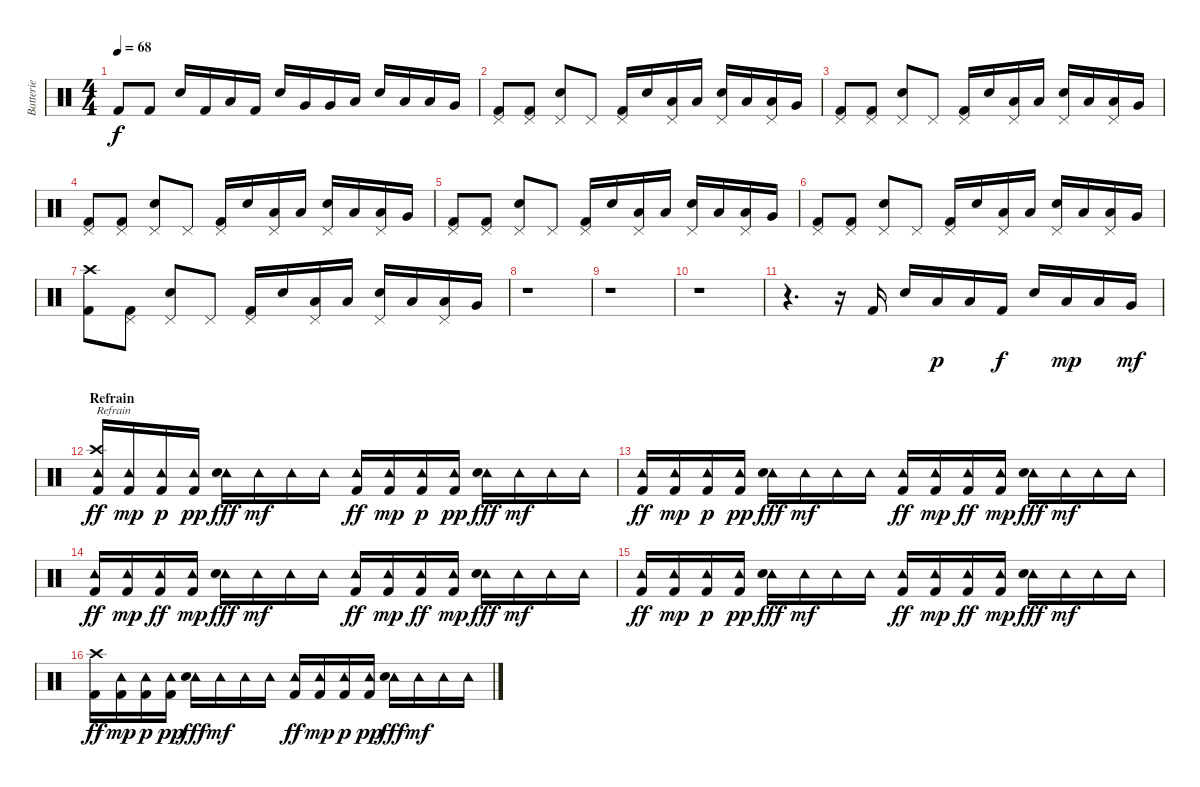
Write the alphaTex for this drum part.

\track ("Batterie" "Batterie") {instrument percussion}
\staff {score}
\articulation defaults
\ts (4 4)
\tempo 68
\clef neutral
\ks c "Kick (hit) 2".8{dy f} "Kick (hit) 2".8 "Electric Snare (hit)".16 "Kick (hit) 2".16 "Low Floor Tom (hit)".16 "Kick (hit) 2".16 "Electric Snare (hit)".16 "Very Low Tom (hit)".16 "Very Low Tom (hit)".16 "Low Floor Tom (hit)".16 "Electric Snare (hit)".16 "Low Floor Tom (hit)".16 "Low Floor Tom (hit)".16 "Very Low Tom (hit)".16
|
("Pedal Hi-Hat (hit)" "Kick (hit) 2").8 ("Pedal Hi-Hat (hit)" "Kick (hit) 2").8 ("Pedal Hi-Hat (hit)" "Electric Snare (hit)").8 "Pedal Hi-Hat (hit)".8 ("Pedal Hi-Hat (hit)" "Kick (hit) 2").16 "Electric Snare (hit)".16 ("Pedal Hi-Hat (hit)" "Low Tom (hit)").16 "Low Tom (hit)".16 ("Pedal Hi-Hat (hit)" "Electric Snare (hit)").16 "Low Tom (hit)".16 ("Pedal Hi-Hat (hit)" "Low Tom (hit)").16 "Very Low Tom (hit)".16 |
("Pedal Hi-Hat (hit)" "Kick (hit) 2").8 ("Pedal Hi-Hat (hit)" "Kick (hit) 2").8 ("Pedal Hi-Hat (hit)" "Electric Snare (hit)").8 "Pedal Hi-Hat (hit)".8 ("Pedal Hi-Hat (hit)" "Kick (hit) 2").16 "Electric Snare (hit)".16 ("Pedal Hi-Hat (hit)" "Low Tom (hit)").16 "Low Tom (hit)".16 ("Pedal Hi-Hat (hit)" "Electric Snare (hit)").16 "Low Tom (hit)".16 ("Pedal Hi-Hat (hit)" "Low Tom (hit)").16 "Very Low Tom (hit)".16 |
("Pedal Hi-Hat (hit)" "Kick (hit) 2").8 ("Pedal Hi-Hat (hit)" "Kick (hit) 2").8 ("Pedal Hi-Hat (hit)" "Electric Snare (hit)").8 "Pedal Hi-Hat (hit)".8 ("Pedal Hi-Hat (hit)" "Kick (hit) 2").16 "Electric Snare (hit)".16 ("Pedal Hi-Hat (hit)" "Low Tom (hit)").16 "Low Tom (hit)".16 ("Pedal Hi-Hat (hit)" "Electric Snare (hit)").16 "Low Tom (hit)".16 ("Pedal Hi-Hat (hit)" "Low Tom (hit)").16 "Very Low Tom (hit)".16 |
("Pedal Hi-Hat (hit)" "Kick (hit) 2").8 ("Pedal Hi-Hat (hit)" "Kick (hit) 2").8 ("Pedal Hi-Hat (hit)" "Electric Snare (hit)").8 "Pedal Hi-Hat (hit)".8 ("Pedal Hi-Hat (hit)" "Kick (hit) 2").16 "Electric Snare (hit)".16 ("Pedal Hi-Hat (hit)" "Low Tom (hit)").16 "Low Tom (hit)".16 ("Pedal Hi-Hat (hit)" "Electric Snare (hit)").16 "Low Tom (hit)".16 ("Pedal Hi-Hat (hit)" "Low Tom (hit)").16 "Very Low Tom (hit)".16 |
("Pedal Hi-Hat (hit)" "Kick (hit) 2").8 ("Pedal Hi-Hat (hit)" "Kick (hit) 2").8 ("Pedal Hi-Hat (hit)" "Electric Snare (hit)").8 "Pedal Hi-Hat (hit)".8 ("Pedal Hi-Hat (hit)" "Kick (hit) 2").16 "Electric Snare (hit)".16 ("Pedal Hi-Hat (hit)" "Low Tom (hit)").16 "Low Tom (hit)".16 ("Pedal Hi-Hat (hit)" "Electric Snare (hit)").16 "Low Tom (hit)".16 ("Pedal Hi-Hat (hit)" "Low Tom (hit)").16 "Very Low Tom (hit)".16 |
("Crash high (hit)" "Kick (hit) 2").8 ("Pedal Hi-Hat (hit)" "Kick (hit) 2").8 ("Pedal Hi-Hat (hit)" "Electric Snare (hit)").8 "Pedal Hi-Hat (hit)".8 ("Pedal Hi-Hat (hit)" "Kick (hit) 2").16 "Electric Snare (hit)".16 ("Pedal Hi-Hat (hit)" "Low Tom (hit)").16 "Low Tom (hit)".16 ("Pedal Hi-Hat (hit)" "Electric Snare (hit)").16 "Low Tom (hit)".16 ("Pedal Hi-Hat (hit)" "Low Tom (hit)").16 "Very Low Tom (hit)".16 |
\section ("" "")
r.1{txt ""} |
r.1 |
r.1 |
r.4{d} r.16 "Kick (hit) 2".16 "Electric Snare (hit)".16 "Low Tom (hit)".16{dy p} "Low Tom (hit)".16 "Kick (hit) 2".16{dy f} "Electric Snare (hit)".16 "Low Tom (hit)".16{dy mp} "Low Tom (hit)".16 "Very Low Tom (hit)".16{dy mf} |
\section ("" "Refrain")
("Crash high (hit)" "Tambourine (hit)" "Kick (hit) 2").16{txt "Refrain" dy ff} ("Tambourine (hit)" "Kick (hit) 2").16{dy mp} ("Tambourine (hit)" "Kick (hit) 2").16{dy p} ("Tambourine (hit)" "Kick (hit) 2").16{dy pp} ("Tambourine (hit)" "Electric Snare (hit)").16{dy fff} "Tambourine (hit)".16{dy mf} "Tambourine (hit)".16 "Tambourine (hit)".16 ("Tambourine (hit)" "Kick (hit) 2").16{dy ff} ("Tambourine (hit)" "Kick (hit) 2").16{dy mp} ("Tambourine (hit)" "Kick (hit) 2").16{dy p} ("Tambourine (hit)" "Kick (hit) 2").16{dy pp} ("Tambourine (hit)" "Electric Snare (hit)").16{dy fff} "Tambourine (hit)".16{dy mf} "Tambourine (hit)".16 "Tambourine (hit)".16 |
("Tambourine (hit)" "Kick (hit) 2").16{dy ff} ("Tambourine (hit)" "Kick (hit) 2").16{dy mp} ("Tambourine (hit)" "Kick (hit) 2").16{dy p} ("Tambourine (hit)" "Kick (hit) 2").16{dy pp} ("Tambourine (hit)" "Electric Snare (hit)").16{dy fff} "Tambourine (hit)".16{dy mf} "Tambourine (hit)".16 "Tambourine (hit)".16 ("Tambourine (hit)" "Kick (hit) 2").16{dy ff} ("Tambourine (hit)" "Kick (hit) 2").16{dy mp} ("Tambourine (hit)" "Kick (hit) 2").16{dy ff} ("Tambourine (hit)" "Kick (hit) 2").16{dy mp} ("Tambourine (hit)" "Electric Snare (hit)").16{dy fff} "Tambourine (hit)".16{dy mf} "Tambourine (hit)".16 "Tambourine (hit)".16 |
("Tambourine (hit)" "Kick (hit) 2").16{dy ff} ("Tambourine (hit)" "Kick (hit) 2").16{dy mp} ("Tambourine (hit)" "Kick (hit) 2").16{dy ff} ("Tambourine (hit)" "Kick (hit) 2").16{dy mp} ("Tambourine (hit)" "Electric Snare (hit)").16{dy fff} "Tambourine (hit)".16{dy mf} "Tambourine (hit)".16 "Tambourine (hit)".16 ("Tambourine (hit)" "Kick (hit) 2").16{dy ff} ("Tambourine (hit)" "Kick (hit) 2").16{dy mp} ("Tambourine (hit)" "Kick (hit) 2").16{dy ff} ("Tambourine (hit)" "Kick (hit) 2").16{dy mp} ("Tambourine (hit)" "Electric Snare (hit)").16{dy fff} "Tambourine (hit)".16{dy mf} "Tambourine (hit)".16 "Tambourine (hit)".16 |
("Tambourine (hit)" "Kick (hit) 2").16{dy ff} ("Tambourine (hit)" "Kick (hit) 2").16{dy mp} ("Tambourine (hit)" "Kick (hit) 2").16{dy p} ("Tambourine (hit)" "Kick (hit) 2").16{dy pp} ("Tambourine (hit)" "Electric Snare (hit)").16{dy fff} "Tambourine (hit)".16{dy mf} "Tambourine (hit)".16 "Tambourine (hit)".16 ("Tambourine (hit)" "Kick (hit) 2").16{dy ff} ("Tambourine (hit)" "Kick (hit) 2").16{dy mp} ("Tambourine (hit)" "Kick (hit) 2").16{dy ff} ("Tambourine (hit)" "Kick (hit) 2").16{dy mp} ("Tambourine (hit)" "Electric Snare (hit)").16{dy fff} "Tambourine (hit)".16{dy mf} "Tambourine (hit)".16 "Tambourine (hit)".16 |
("Crash high (hit)" "Kick (hit) 2").16{dy ff} ("Tambourine (hit)" "Kick (hit) 2").16{dy mp} ("Tambourine (hit)" "Kick (hit) 2").16{dy p} ("Tambourine (hit)" "Kick (hit) 2").16{dy pp} ("Tambourine (hit)" "Electric Snare (hit)").16{dy fff} "Tambourine (hit)".16{dy mf} "Tambourine (hit)".16 "Tambourine (hit)".16 ("Tambourine (hit)" "Kick (hit) 2").16{dy ff} ("Tambourine (hit)" "Kick (hit) 2").16{dy mp} ("Tambourine (hit)" "Kick (hit) 2").16{dy p} ("Tambourine (hit)" "Kick (hit) 2").16{dy pp} ("Tambourine (hit)" "Electric Snare (hit)").16{dy fff} "Tambourine (hit)".16{dy mf} "Tambourine (hit)".16 "Tambourine (hit)".16
